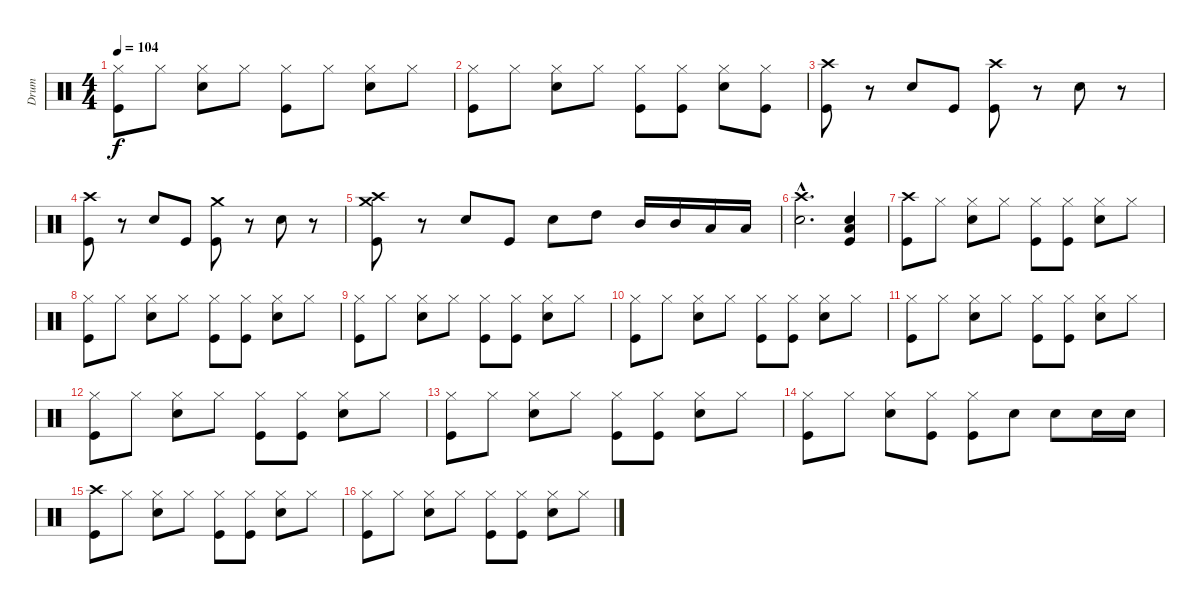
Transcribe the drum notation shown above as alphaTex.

\track ("Drum" "Drum") {instrument percussion}
\staff {score}
\articulation defaults
\ts (4 4)
\tempo 104
\clef neutral
\ks c
("Hi-Hat (closed)" "Kick (hit)").8{dy f} "Hi-Hat (closed)".8 ("Electric Snare (hit)" "Hi-Hat (closed)").8 "Hi-Hat (closed)".8 ("Hi-Hat (closed)" "Kick (hit)").8 "Hi-Hat (closed)".8 ("Electric Snare (hit)" "Hi-Hat (closed)").8 "Hi-Hat (closed)".8 |
("Hi-Hat (closed)" "Kick (hit)").8 "Hi-Hat (closed)".8 ("Electric Snare (hit)" "Hi-Hat (closed)").8 "Hi-Hat (closed)".8 ("Hi-Hat (closed)" "Kick (hit)").8 ("Hi-Hat (closed)" "Kick (hit)").8 ("Electric Snare (hit)" "Hi-Hat (closed)").8 ("Hi-Hat (closed)" "Kick (hit)").8 |
("Crash high (hit)" "Kick (hit)").8 r.8 "Electric Snare (hit)".8 "Kick (hit)".8 ("Crash high (hit)" "Kick (hit)").8 r.8 "Electric Snare (hit)".8 r.8 |
("Crash high (hit)" "Kick (hit)").8 r.8 "Electric Snare (hit)".8 "Kick (hit)".8 ("Crash medium (hit)" "Kick (hit)").8 r.8 "Electric Snare (hit)".8 r.8 |
("Crash medium (hit)" "Crash high (hit)" "Kick (hit)").8 r.8 "Electric Snare (hit)".8 "Kick (hit)".8 "Electric Snare (hit)".8 "High Tom (hit)".8 "Mid Tom (hit)".16 "Mid Tom (hit)".16 "Low Tom (hit)".16 "Low Tom (hit)".16 |
("Electric Snare (hit)"{hac} "Crash high (hit)"{hac}).2{d} ("Electric Snare (hit)" "Low Floor Tom (hit)" "Kick (hit)").4 |
("Crash high (hit)" "Kick (hit)").8 "Hi-Hat (closed)".8 ("Electric Snare (hit)" "Hi-Hat (closed)").8 "Hi-Hat (closed)".8 ("Hi-Hat (closed)" "Kick (hit)").8 ("Hi-Hat (closed)" "Kick (hit)").8 ("Electric Snare (hit)" "Hi-Hat (closed)").8 "Hi-Hat (closed)".8 |
("Hi-Hat (closed)" "Kick (hit)").8 "Hi-Hat (closed)".8 ("Electric Snare (hit)" "Hi-Hat (closed)").8 "Hi-Hat (closed)".8 ("Hi-Hat (closed)" "Kick (hit)").8 ("Hi-Hat (closed)" "Kick (hit)").8 ("Electric Snare (hit)" "Hi-Hat (closed)").8 "Hi-Hat (closed)".8 |
("Hi-Hat (closed)" "Kick (hit)").8 "Hi-Hat (closed)".8 ("Electric Snare (hit)" "Hi-Hat (closed)").8 "Hi-Hat (closed)".8 ("Hi-Hat (closed)" "Kick (hit)").8 ("Hi-Hat (closed)" "Kick (hit)").8 ("Electric Snare (hit)" "Hi-Hat (closed)").8 "Hi-Hat (closed)".8 |
("Hi-Hat (closed)" "Kick (hit)").8 "Hi-Hat (closed)".8 ("Electric Snare (hit)" "Hi-Hat (closed)").8 "Hi-Hat (closed)".8 ("Hi-Hat (closed)" "Kick (hit)").8 ("Hi-Hat (closed)" "Kick (hit)").8 ("Electric Snare (hit)" "Hi-Hat (closed)").8 "Hi-Hat (closed)".8 |
("Hi-Hat (closed)" "Kick (hit)").8 "Hi-Hat (closed)".8 ("Electric Snare (hit)" "Hi-Hat (closed)").8 "Hi-Hat (closed)".8 ("Hi-Hat (closed)" "Kick (hit)").8 ("Hi-Hat (closed)" "Kick (hit)").8 ("Electric Snare (hit)" "Hi-Hat (closed)").8 "Hi-Hat (closed)".8 |
("Hi-Hat (closed)" "Kick (hit)").8 "Hi-Hat (closed)".8 ("Electric Snare (hit)" "Hi-Hat (closed)").8 "Hi-Hat (closed)".8 ("Hi-Hat (closed)" "Kick (hit)").8 ("Hi-Hat (closed)" "Kick (hit)").8 ("Electric Snare (hit)" "Hi-Hat (closed)").8 "Hi-Hat (closed)".8 |
("Hi-Hat (closed)" "Kick (hit)").8 "Hi-Hat (closed)".8 ("Electric Snare (hit)" "Hi-Hat (closed)").8 "Hi-Hat (closed)".8 ("Hi-Hat (closed)" "Kick (hit)").8 ("Hi-Hat (closed)" "Kick (hit)").8 ("Electric Snare (hit)" "Hi-Hat (closed)").8 "Hi-Hat (closed)".8 |
("Hi-Hat (closed)" "Kick (hit)").8 "Hi-Hat (closed)".8 ("Electric Snare (hit)" "Hi-Hat (closed)").8 ("Hi-Hat (closed)" "Kick (hit)").8 ("Hi-Hat (closed)" "Kick (hit)").8 "Electric Snare (hit)".8 "Electric Snare (hit)".8 "Electric Snare (hit)".16 "Electric Snare (hit)".16 |
("Crash high (hit)" "Kick (hit)").8 "Hi-Hat (closed)".8 ("Electric Snare (hit)" "Hi-Hat (closed)").8 "Hi-Hat (closed)".8 ("Hi-Hat (closed)" "Kick (hit)").8 ("Hi-Hat (closed)" "Kick (hit)").8 ("Electric Snare (hit)" "Hi-Hat (closed)").8 "Hi-Hat (closed)".8 |
("Hi-Hat (closed)" "Kick (hit)").8 "Hi-Hat (closed)".8 ("Electric Snare (hit)" "Hi-Hat (closed)").8 "Hi-Hat (closed)".8 ("Hi-Hat (closed)" "Kick (hit)").8 ("Hi-Hat (closed)" "Kick (hit)").8 ("Electric Snare (hit)" "Hi-Hat (closed)").8 "Hi-Hat (closed)".8
